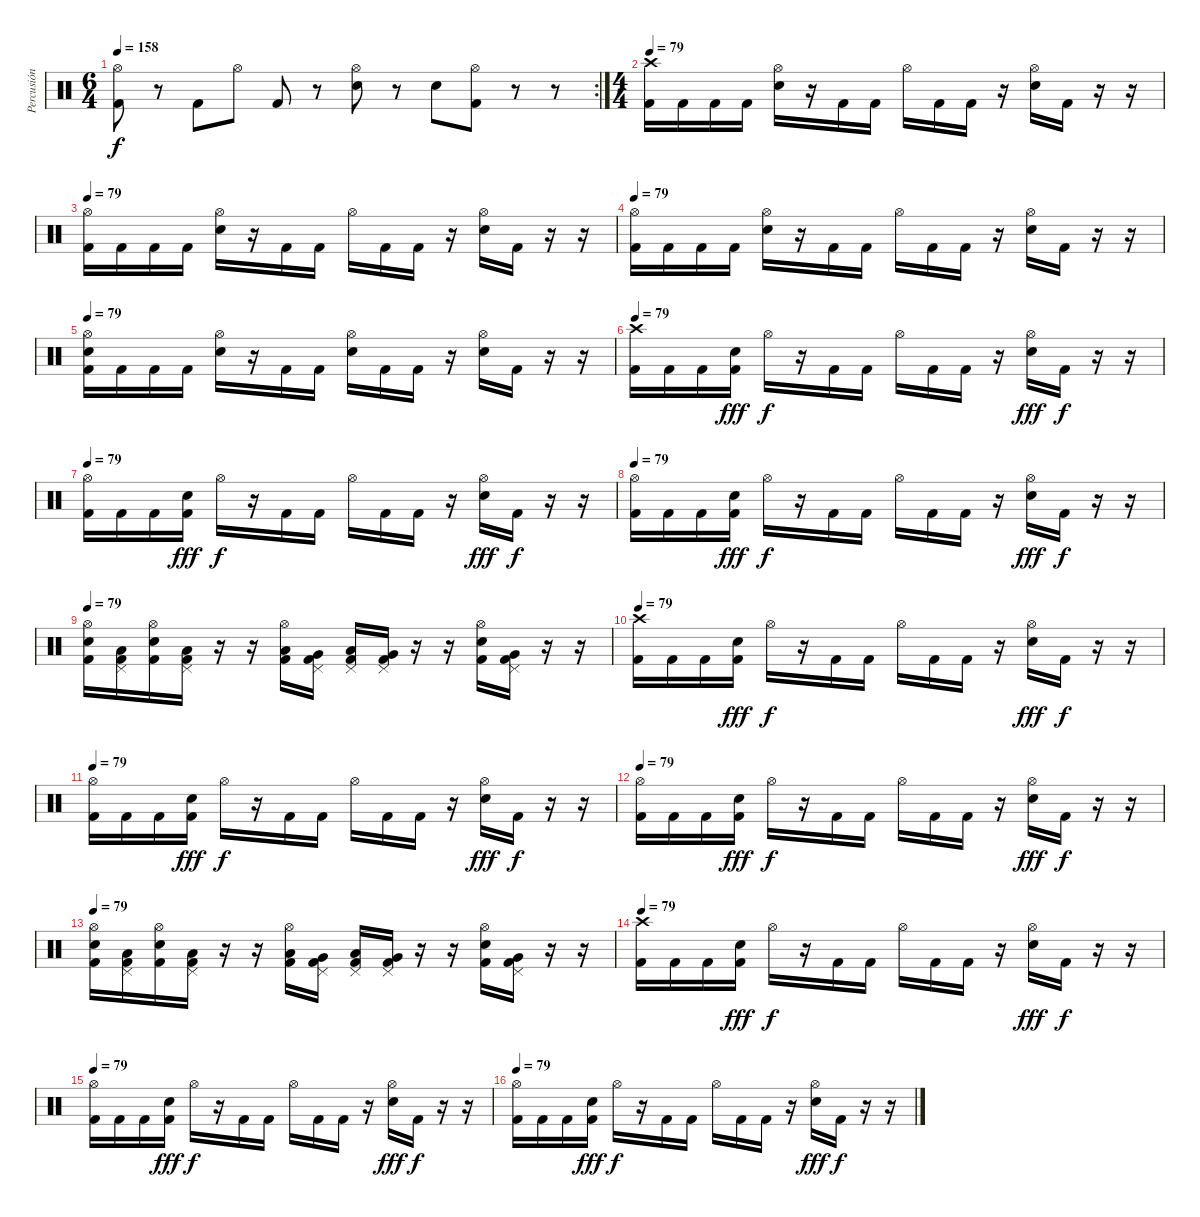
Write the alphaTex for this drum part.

\track ("Percusión" "Percusión") {instrument percussion}
\staff {score}
\articulation defaults
\rc 2
\ts (6 4)
\tempo 158
\clef neutral
\ks c
("Hi-Hat (open)" "Kick (hit) 2").8{dy f} r.8 "Kick (hit) 2".8 "Hi-Hat (open)".8 "Kick (hit) 2".8 r.8 ("Hi-Hat (open)" "Electric Snare (hit)").8 r.8 "Electric Snare (hit)".8 ("Hi-Hat (open)" "Kick (hit) 2").8 r.8 r.8 |
\ts (4 4)
\tempo 79
("Crash high (hit)" "Kick (hit) 2").16 "Kick (hit) 2".16 "Kick (hit) 2".16 "Kick (hit) 2".16 ("Hi-Hat (open)" "Electric Snare (hit)").16 r.16 "Kick (hit) 2".16 "Kick (hit) 2".16 "Hi-Hat (open)".16 "Kick (hit) 2".16 "Kick (hit) 2".16 r.16 ("Hi-Hat (open)" "Electric Snare (hit)").16 "Kick (hit) 2".16 r.16 r.16 |
\tempo 79
("Hi-Hat (open)" "Kick (hit) 2").16 "Kick (hit) 2".16 "Kick (hit) 2".16 "Kick (hit) 2".16 ("Hi-Hat (open)" "Electric Snare (hit)").16 r.16 "Kick (hit) 2".16 "Kick (hit) 2".16 "Hi-Hat (open)".16 "Kick (hit) 2".16 "Kick (hit) 2".16 r.16 ("Hi-Hat (open)" "Electric Snare (hit)").16 "Kick (hit) 2".16 r.16 r.16 |
\tempo 79
("Hi-Hat (open)" "Kick (hit) 2").16 "Kick (hit) 2".16 "Kick (hit) 2".16 "Kick (hit) 2".16 ("Hi-Hat (open)" "Electric Snare (hit)").16 r.16 "Kick (hit) 2".16 "Kick (hit) 2".16 "Hi-Hat (open)".16 "Kick (hit) 2".16 "Kick (hit) 2".16 r.16 ("Hi-Hat (open)" "Electric Snare (hit)").16 "Kick (hit) 2".16 r.16 r.16 |
\tempo 79
("Hi-Hat (open)" "Electric Snare (hit)" "Kick (hit) 2").16 "Kick (hit) 2".16 "Kick (hit) 2".16 "Kick (hit) 2".16 ("Hi-Hat (open)" "Electric Snare (hit)").16 r.16 "Kick (hit) 2".16 "Kick (hit) 2".16 ("Hi-Hat (open)" "Electric Snare (hit)").16 "Kick (hit) 2".16 "Kick (hit) 2".16 r.16 ("Hi-Hat (open)" "Electric Snare (hit)").16 "Kick (hit) 2".16 r.16 r.16 |
\tempo 79
("Crash high (hit)" "Kick (hit) 2").16 "Kick (hit) 2".16 "Kick (hit) 2".16 ("Electric Snare (hit)" "Kick (hit) 2").16{dy fff} "Hi-Hat (open)".16{dy f} r.16 "Kick (hit) 2".16 "Kick (hit) 2".16 "Hi-Hat (open)".16 "Kick (hit) 2".16 "Kick (hit) 2".16 r.16 ("Hi-Hat (open)" "Electric Snare (hit)").16{dy fff} "Kick (hit) 2".16{dy f} r.16 r.16 |
\tempo 79
("Hi-Hat (open)" "Kick (hit) 2").16 "Kick (hit) 2".16 "Kick (hit) 2".16 ("Electric Snare (hit)" "Kick (hit) 2").16{dy fff} "Hi-Hat (open)".16{dy f} r.16 "Kick (hit) 2".16 "Kick (hit) 2".16 "Hi-Hat (open)".16 "Kick (hit) 2".16 "Kick (hit) 2".16 r.16 ("Hi-Hat (open)" "Electric Snare (hit)").16{dy fff} "Kick (hit) 2".16{dy f} r.16 r.16 |
\tempo 79
("Hi-Hat (open)" "Kick (hit) 2").16 "Kick (hit) 2".16 "Kick (hit) 2".16 ("Electric Snare (hit)" "Kick (hit) 2").16{dy fff} "Hi-Hat (open)".16{dy f} r.16 "Kick (hit) 2".16 "Kick (hit) 2".16 "Hi-Hat (open)".16 "Kick (hit) 2".16 "Kick (hit) 2".16 r.16 ("Hi-Hat (open)" "Electric Snare (hit)").16{dy fff} "Kick (hit) 2".16{dy f} r.16 r.16 |
\tempo 79
("Hi-Hat (open)" "Electric Snare (hit)" "Kick (hit) 2").16 ("Pedal Hi-Hat (hit)" "Low Tom (hit)" "Kick (hit) 2").16 ("Hi-Hat (open)" "Electric Snare (hit)" "Kick (hit) 2").16 ("Pedal Hi-Hat (hit)" "Low Tom (hit)" "Kick (hit) 2").16 r.16 r.16 ("Low Tom (hit)" "Hi-Hat (open)" "Kick (hit) 2").16 ("Very Low Tom (hit)" "Pedal Hi-Hat (hit)" "Kick (hit) 2").16 ("Low Floor Tom (hit)" "Pedal Hi-Hat (hit)" "Kick (hit) 2").16 ("Very Low Tom (hit)" "Pedal Hi-Hat (hit)" "Kick (hit) 2").16 r.16 r.16 ("Hi-Hat (open)" "Electric Snare (hit)" "Kick (hit) 2").16 ("Pedal Hi-Hat (hit)" "Very Low Tom (hit)" "Kick (hit) 2").16 r.16 r.16 |
\tempo 79
("Crash high (hit)" "Kick (hit) 2").16 "Kick (hit) 2".16 "Kick (hit) 2".16 ("Electric Snare (hit)" "Kick (hit) 2").16{dy fff} "Hi-Hat (open)".16{dy f} r.16 "Kick (hit) 2".16 "Kick (hit) 2".16 "Hi-Hat (open)".16 "Kick (hit) 2".16 "Kick (hit) 2".16 r.16 ("Hi-Hat (open)" "Electric Snare (hit)").16{dy fff} "Kick (hit) 2".16{dy f} r.16 r.16 |
\tempo 79
("Hi-Hat (open)" "Kick (hit) 2").16 "Kick (hit) 2".16 "Kick (hit) 2".16 ("Electric Snare (hit)" "Kick (hit) 2").16{dy fff} "Hi-Hat (open)".16{dy f} r.16 "Kick (hit) 2".16 "Kick (hit) 2".16 "Hi-Hat (open)".16 "Kick (hit) 2".16 "Kick (hit) 2".16 r.16 ("Hi-Hat (open)" "Electric Snare (hit)").16{dy fff} "Kick (hit) 2".16{dy f} r.16 r.16 |
\tempo 79
("Hi-Hat (open)" "Kick (hit) 2").16 "Kick (hit) 2".16 "Kick (hit) 2".16 ("Electric Snare (hit)" "Kick (hit) 2").16{dy fff} "Hi-Hat (open)".16{dy f} r.16 "Kick (hit) 2".16 "Kick (hit) 2".16 "Hi-Hat (open)".16 "Kick (hit) 2".16 "Kick (hit) 2".16 r.16 ("Hi-Hat (open)" "Electric Snare (hit)").16{dy fff} "Kick (hit) 2".16{dy f} r.16 r.16 |
\tempo 79
("Hi-Hat (open)" "Electric Snare (hit)" "Kick (hit) 2").16 ("Pedal Hi-Hat (hit)" "Low Tom (hit)" "Kick (hit) 2").16 ("Hi-Hat (open)" "Electric Snare (hit)" "Kick (hit) 2").16 ("Pedal Hi-Hat (hit)" "Low Tom (hit)" "Kick (hit) 2").16 r.16 r.16 ("Low Tom (hit)" "Hi-Hat (open)" "Kick (hit) 2").16 ("Very Low Tom (hit)" "Pedal Hi-Hat (hit)" "Kick (hit) 2").16 ("Low Floor Tom (hit)" "Pedal Hi-Hat (hit)" "Kick (hit) 2").16 ("Very Low Tom (hit)" "Pedal Hi-Hat (hit)" "Kick (hit) 2").16 r.16 r.16 ("Hi-Hat (open)" "Electric Snare (hit)" "Kick (hit) 2").16 ("Pedal Hi-Hat (hit)" "Very Low Tom (hit)" "Kick (hit) 2").16 r.16 r.16 |
\tempo 79
("Crash high (hit)" "Kick (hit) 2").16 "Kick (hit) 2".16 "Kick (hit) 2".16 ("Electric Snare (hit)" "Kick (hit) 2").16{dy fff} "Hi-Hat (open)".16{dy f} r.16 "Kick (hit) 2".16 "Kick (hit) 2".16 "Hi-Hat (open)".16 "Kick (hit) 2".16 "Kick (hit) 2".16 r.16 ("Hi-Hat (open)" "Electric Snare (hit)").16{dy fff} "Kick (hit) 2".16{dy f} r.16 r.16 |
\tempo 79
("Hi-Hat (open)" "Kick (hit) 2").16 "Kick (hit) 2".16 "Kick (hit) 2".16 ("Electric Snare (hit)" "Kick (hit) 2").16{dy fff} "Hi-Hat (open)".16{dy f} r.16 "Kick (hit) 2".16 "Kick (hit) 2".16 "Hi-Hat (open)".16 "Kick (hit) 2".16 "Kick (hit) 2".16 r.16 ("Hi-Hat (open)" "Electric Snare (hit)").16{dy fff} "Kick (hit) 2".16{dy f} r.16 r.16 |
\tempo 79
("Hi-Hat (open)" "Kick (hit) 2").16 "Kick (hit) 2".16 "Kick (hit) 2".16 ("Electric Snare (hit)" "Kick (hit) 2").16{dy fff} "Hi-Hat (open)".16{dy f} r.16 "Kick (hit) 2".16 "Kick (hit) 2".16 "Hi-Hat (open)".16 "Kick (hit) 2".16 "Kick (hit) 2".16 r.16 ("Hi-Hat (open)" "Electric Snare (hit)").16{dy fff} "Kick (hit) 2".16{dy f} r.16 r.16
